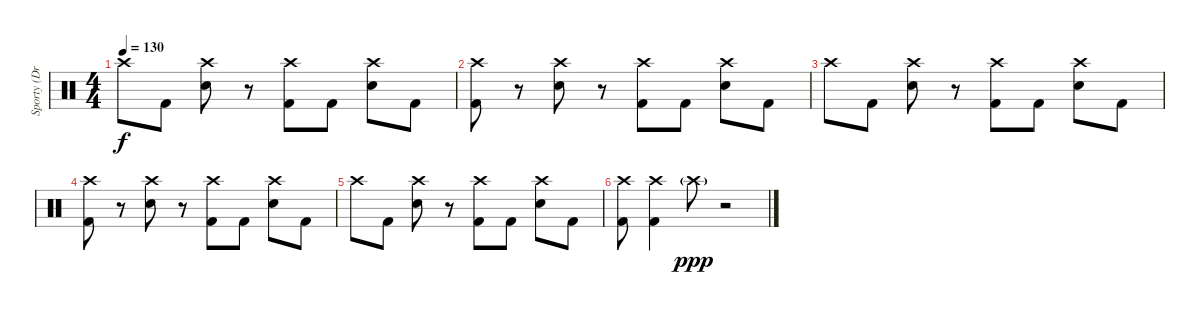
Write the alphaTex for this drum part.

\track ("Sporty (Drums)" "Sporty (Dr") {instrument percussion}
\staff {score}
\articulation defaults
\ts (4 4)
\tempo 130
\clef neutral
\ks c "Crash high (hit)".8{dy f} "Kick (hit) 2".8
("Crash high (hit)" "Snare (hit) 2").8 r.8 ("Crash high (hit)" "Kick (hit) 2").8 "Kick (hit) 2".8 ("Crash high (hit)" "Snare (hit) 2").8 "Kick (hit) 2".8 |
("Crash high (hit)" "Kick (hit) 2").8 r.8 ("Crash high (hit)" "Snare (hit) 2").8 r.8 ("Crash high (hit)" "Kick (hit) 2").8 "Kick (hit) 2".8 ("Crash high (hit)" "Snare (hit) 2").8 "Kick (hit) 2".8 |
"Crash high (hit)".8 "Kick (hit) 2".8 ("Crash high (hit)" "Snare (hit) 2").8 r.8 ("Crash high (hit)" "Kick (hit) 2").8 "Kick (hit) 2".8 ("Crash high (hit)" "Snare (hit) 2").8 "Kick (hit) 2".8 |
("Crash high (hit)" "Kick (hit) 2").8 r.8 ("Crash high (hit)" "Snare (hit) 2").8 r.8 ("Crash high (hit)" "Kick (hit) 2").8 "Kick (hit) 2".8 ("Crash high (hit)" "Snare (hit) 2").8 "Kick (hit) 2".8 |
"Crash high (hit)".8 "Kick (hit) 2".8 ("Crash high (hit)" "Snare (hit) 2").8 r.8 ("Crash high (hit)" "Kick (hit) 2").8 "Kick (hit) 2".8 ("Crash high (hit)" "Snare (hit) 2").8 "Kick (hit) 2".8 |
("Crash high (hit)" "Kick (hit) 2").8 ("Crash high (hit)" "Kick (hit) 2").4 "Crash high (hit)"{g}.8{dy ppp} r.2
